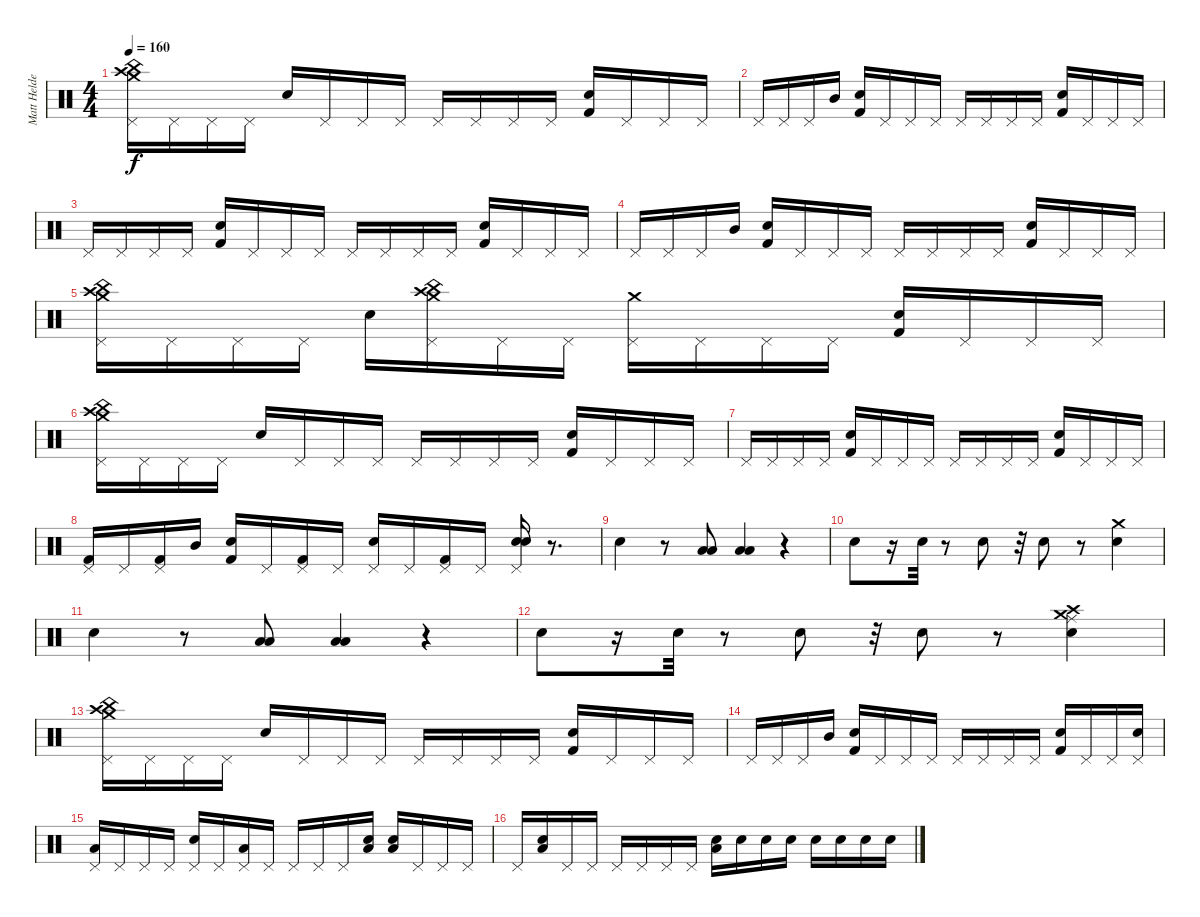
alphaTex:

\track ("Matt Helders" "Matt Helde") {instrument percussion}
\staff {score}
\articulation defaults
\ts (4 4)
\tempo 160
\clef neutral
\ks c
("Pedal Hi-Hat (hit)" "Crash medium (hit)" "Crash high (hit)" "China (hit)").16{dy f} "Pedal Hi-Hat (hit)".16 "Pedal Hi-Hat (hit)".16 "Pedal Hi-Hat (hit)".16 "Snare (hit) 2".16 "Pedal Hi-Hat (hit)".16 "Pedal Hi-Hat (hit)".16 "Pedal Hi-Hat (hit)".16 "Pedal Hi-Hat (hit)".16 "Pedal Hi-Hat (hit)".16 "Pedal Hi-Hat (hit)".16 "Pedal Hi-Hat (hit)".16 ("Snare (hit) 2" "Kick (hit) 2").16 "Pedal Hi-Hat (hit)".16 "Pedal Hi-Hat (hit)".16 "Pedal Hi-Hat (hit)".16 |
"Pedal Hi-Hat (hit)".16 "Pedal Hi-Hat (hit)".16 "Pedal Hi-Hat (hit)".16 "Mid Tom (hit)".16 ("Snare (hit) 2" "Kick (hit) 2").16 "Pedal Hi-Hat (hit)".16 "Pedal Hi-Hat (hit)".16 "Pedal Hi-Hat (hit)".16 "Pedal Hi-Hat (hit)".16 "Pedal Hi-Hat (hit)".16 "Pedal Hi-Hat (hit)".16 "Pedal Hi-Hat (hit)".16 ("Snare (hit) 2" "Kick (hit) 2").16 "Pedal Hi-Hat (hit)".16 "Pedal Hi-Hat (hit)".16 "Pedal Hi-Hat (hit)".16 |
"Pedal Hi-Hat (hit)".16 "Pedal Hi-Hat (hit)".16 "Pedal Hi-Hat (hit)".16 "Pedal Hi-Hat (hit)".16 ("Snare (hit) 2" "Kick (hit) 2").16 "Pedal Hi-Hat (hit)".16 "Pedal Hi-Hat (hit)".16 "Pedal Hi-Hat (hit)".16 "Pedal Hi-Hat (hit)".16 "Pedal Hi-Hat (hit)".16 "Pedal Hi-Hat (hit)".16 "Pedal Hi-Hat (hit)".16 ("Snare (hit) 2" "Kick (hit) 2").16 "Pedal Hi-Hat (hit)".16 "Pedal Hi-Hat (hit)".16 "Pedal Hi-Hat (hit)".16 |
"Pedal Hi-Hat (hit)".16 "Pedal Hi-Hat (hit)".16 "Pedal Hi-Hat (hit)".16 "Mid Tom (hit)".16 ("Snare (hit) 2" "Kick (hit) 2").16 "Pedal Hi-Hat (hit)".16 "Pedal Hi-Hat (hit)".16 "Pedal Hi-Hat (hit)".16 "Pedal Hi-Hat (hit)".16 "Pedal Hi-Hat (hit)".16 "Pedal Hi-Hat (hit)".16 "Pedal Hi-Hat (hit)".16 ("Snare (hit) 2" "Kick (hit) 2").16 "Pedal Hi-Hat (hit)".16 "Pedal Hi-Hat (hit)".16 "Pedal Hi-Hat (hit)".16 |
("Pedal Hi-Hat (hit)" "Crash medium (hit)" "Crash high (hit)" "China (hit)").16 "Pedal Hi-Hat (hit)".16 "Pedal Hi-Hat (hit)".16 "Pedal Hi-Hat (hit)".16 "Snare (hit) 2".16 ("Pedal Hi-Hat (hit)" "Crash medium (hit)" "Crash high (hit)" "China (hit)").16 "Pedal Hi-Hat (hit)".16 "Pedal Hi-Hat (hit)".16 ("Pedal Hi-Hat (hit)" "Crash medium (hit)").16 "Pedal Hi-Hat (hit)".16 "Pedal Hi-Hat (hit)".16 "Pedal Hi-Hat (hit)".16 ("Snare (hit) 2" "Kick (hit) 2").16 "Pedal Hi-Hat (hit)".16 "Pedal Hi-Hat (hit)".16 "Pedal Hi-Hat (hit)".16 |
("Pedal Hi-Hat (hit)" "Crash medium (hit)" "Crash high (hit)" "China (hit)").16 "Pedal Hi-Hat (hit)".16 "Pedal Hi-Hat (hit)".16 "Pedal Hi-Hat (hit)".16 "Snare (hit) 2".16 "Pedal Hi-Hat (hit)".16 "Pedal Hi-Hat (hit)".16 "Pedal Hi-Hat (hit)".16 "Pedal Hi-Hat (hit)".16 "Pedal Hi-Hat (hit)".16 "Pedal Hi-Hat (hit)".16 "Pedal Hi-Hat (hit)".16 ("Snare (hit) 2" "Kick (hit) 2").16 "Pedal Hi-Hat (hit)".16 "Pedal Hi-Hat (hit)".16 "Pedal Hi-Hat (hit)".16 |
"Pedal Hi-Hat (hit)".16 "Pedal Hi-Hat (hit)".16 "Pedal Hi-Hat (hit)".16 "Pedal Hi-Hat (hit)".16 ("Snare (hit) 2" "Kick (hit) 2").16 "Pedal Hi-Hat (hit)".16 "Pedal Hi-Hat (hit)".16 "Pedal Hi-Hat (hit)".16 "Pedal Hi-Hat (hit)".16 "Pedal Hi-Hat (hit)".16 "Pedal Hi-Hat (hit)".16 "Pedal Hi-Hat (hit)".16 ("Snare (hit) 2" "Kick (hit) 2").16 "Pedal Hi-Hat (hit)".16 "Pedal Hi-Hat (hit)".16 "Pedal Hi-Hat (hit)".16 |
("Pedal Hi-Hat (hit)" "Kick (hit) 2").16 "Pedal Hi-Hat (hit)".16 ("Pedal Hi-Hat (hit)" "Kick (hit) 2").16 "Mid Tom (hit)".16 ("Snare (hit) 2" "Kick (hit) 2").16 "Pedal Hi-Hat (hit)".16 ("Pedal Hi-Hat (hit)" "Kick (hit) 2").16 "Pedal Hi-Hat (hit)".16 ("Pedal Hi-Hat (hit)" "Snare (hit)").16 "Pedal Hi-Hat (hit)".16 ("Pedal Hi-Hat (hit)" "Kick (hit) 2").16 "Pedal Hi-Hat (hit)".16 ("Pedal Hi-Hat (hit)" "Snare (hit) 2" "Electric Snare (hit)").16 r.8{d} |
"Snare (hit) 2".4 r.8 ("Low Tom (hit)" "Low Tom (hit)").8 ("Low Floor Tom (hit)" "Low Floor Tom (hit)").4 r.4 |
"Snare (hit) 2".8 r.16 "Snare (hit) 2".32 r.8 "Snare (hit) 2".8 r.32 "Snare (hit) 2".8 r.8 ("Snare (hit) 2" "Crash medium (hit)").4 |
"Snare (hit) 2".4 r.8 ("Low Tom (hit)" "Low Tom (hit)").8 ("Low Floor Tom (hit)" "Low Floor Tom (hit)").4 r.4 |
"Snare (hit) 2".8 r.16 "Snare (hit) 2".32 r.8 "Snare (hit) 2".8 r.32 "Snare (hit) 2".8 r.8 ("Snare (hit) 2" "Crash medium (hit)" "Ride (middle)" "Crash high (hit)").4 |
("Pedal Hi-Hat (hit)" "Crash medium (hit)" "Crash high (hit)" "China (hit)").16 "Pedal Hi-Hat (hit)".16 "Pedal Hi-Hat (hit)".16 "Pedal Hi-Hat (hit)".16 "Snare (hit) 2".16 "Pedal Hi-Hat (hit)".16 "Pedal Hi-Hat (hit)".16 "Pedal Hi-Hat (hit)".16 "Pedal Hi-Hat (hit)".16 "Pedal Hi-Hat (hit)".16 "Pedal Hi-Hat (hit)".16 "Pedal Hi-Hat (hit)".16 ("Snare (hit) 2" "Kick (hit) 2").16 "Pedal Hi-Hat (hit)".16 "Pedal Hi-Hat (hit)".16 "Pedal Hi-Hat (hit)".16 |
"Pedal Hi-Hat (hit)".16 "Pedal Hi-Hat (hit)".16 "Pedal Hi-Hat (hit)".16 "Mid Tom (hit)".16 ("Snare (hit) 2" "Kick (hit) 2").16 "Pedal Hi-Hat (hit)".16 "Pedal Hi-Hat (hit)".16 "Pedal Hi-Hat (hit)".16 "Pedal Hi-Hat (hit)".16 "Pedal Hi-Hat (hit)".16 "Pedal Hi-Hat (hit)".16 "Pedal Hi-Hat (hit)".16 ("Snare (hit) 2" "Kick (hit) 2").16 "Pedal Hi-Hat (hit)".16 "Pedal Hi-Hat (hit)".16 ("Pedal Hi-Hat (hit)" "Snare (hit)").16 |
("Pedal Hi-Hat (hit)" "Low Tom (hit)").16 "Pedal Hi-Hat (hit)".16 "Pedal Hi-Hat (hit)".16 "Pedal Hi-Hat (hit)".16 ("Pedal Hi-Hat (hit)" "Snare (hit)").16 "Pedal Hi-Hat (hit)".16 ("Pedal Hi-Hat (hit)" "Low Tom (hit)").16 "Pedal Hi-Hat (hit)".16 "Pedal Hi-Hat (hit)".16 "Pedal Hi-Hat (hit)".16 "Pedal Hi-Hat (hit)".16 ("Low Tom (hit)" "Snare (hit) 2").16 ("Low Tom (hit)" "Snare (hit) 2").16 "Pedal Hi-Hat (hit)".16 "Pedal Hi-Hat (hit)".16 "Pedal Hi-Hat (hit)".16 |
"Pedal Hi-Hat (hit)".16 ("Low Tom (hit)" "Snare (hit) 2").16 "Pedal Hi-Hat (hit)".16 "Pedal Hi-Hat (hit)".16 "Pedal Hi-Hat (hit)".16 "Pedal Hi-Hat (hit)".16 "Pedal Hi-Hat (hit)".16 "Pedal Hi-Hat (hit)".16 ("Low Tom (hit)" "Snare (hit) 2").16 "Snare (hit) 2".16 "Snare (hit) 2".16 "Snare (hit) 2".16 "Snare (hit) 2".16 "Snare (hit) 2".16 "Snare (hit) 2".16 "Snare (hit) 2".16
